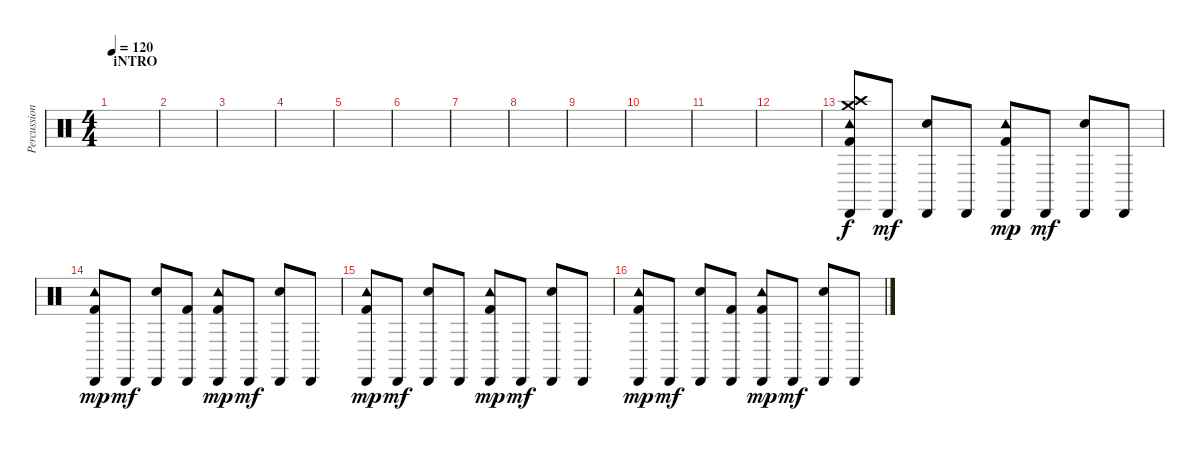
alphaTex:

\track ("Percussions" "Percussion") {instrument percussion}
\staff {score}
\articulation defaults
\ts (4 4)
\section ("" "iNTRO")
\tempo 120
\clef neutral
\ks c
|
|
|
|
|
|
|
|
|
|
|
|
("Tambourine (hit)" "Cabasa (hit)" "Crash medium (hit)" "Crash high (hit)" "Kick (hit) 2").8 "Cabasa (hit)".8{dy mf} ("Cabasa (hit)" "Electric Snare (hit)").8 "Cabasa (hit)".8 ("Tambourine (hit)" "Cabasa (hit)" "Kick (hit) 2").8{dy mp} "Cabasa (hit)".8{dy mf} ("Cabasa (hit)" "Electric Snare (hit)").8 "Cabasa (hit)".8 |
("Tambourine (hit)" "Cabasa (hit)" "Kick (hit) 2").8{dy mp} "Cabasa (hit)".8{dy mf} ("Cabasa (hit)" "Electric Snare (hit)").8 ("Cabasa (hit)" "Kick (hit) 2").8 ("Tambourine (hit)" "Cabasa (hit)" "Kick (hit) 2").8{dy mp} "Cabasa (hit)".8{dy mf} ("Cabasa (hit)" "Electric Snare (hit)").8 "Cabasa (hit)".8 |
("Tambourine (hit)" "Cabasa (hit)" "Kick (hit) 2").8{dy mp} "Cabasa (hit)".8{dy mf} ("Cabasa (hit)" "Electric Snare (hit)").8 "Cabasa (hit)".8 ("Tambourine (hit)" "Cabasa (hit)" "Kick (hit) 2").8{dy mp} "Cabasa (hit)".8{dy mf} ("Cabasa (hit)" "Electric Snare (hit)").8 "Cabasa (hit)".8 |
("Tambourine (hit)" "Cabasa (hit)" "Kick (hit) 2").8{dy mp} "Cabasa (hit)".8{dy mf} ("Cabasa (hit)" "Electric Snare (hit)").8 ("Cabasa (hit)" "Kick (hit) 2").8 ("Tambourine (hit)" "Cabasa (hit)" "Kick (hit) 2").8{dy mp} "Cabasa (hit)".8{dy mf} ("Cabasa (hit)" "Electric Snare (hit)").8 "Cabasa (hit)".8
